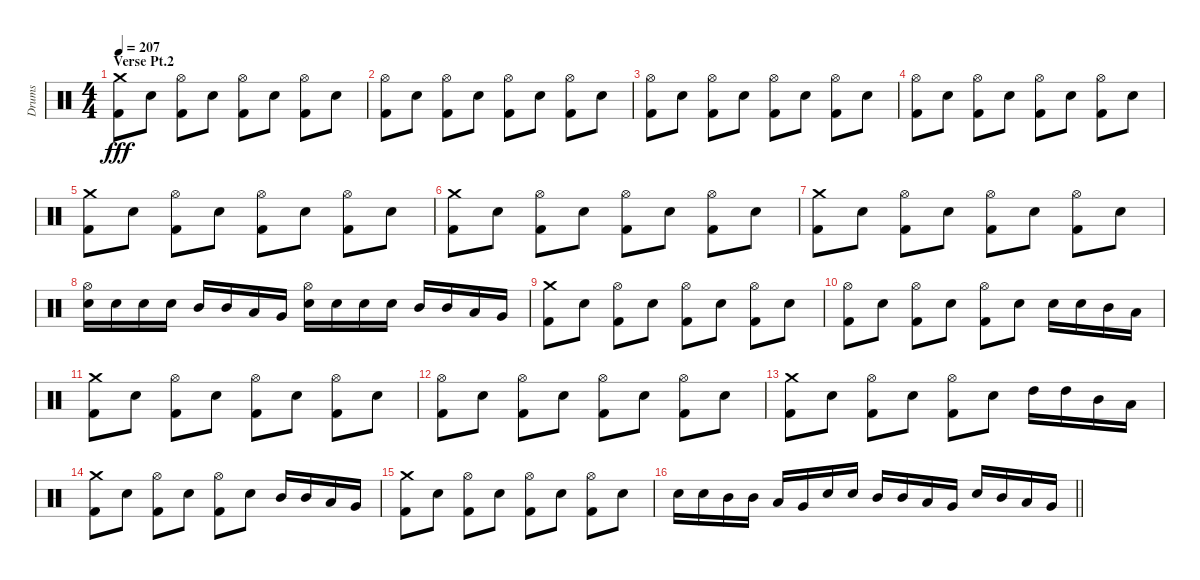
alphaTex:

\track ("Drums" "Drums") {instrument percussion}
\staff {score}
\articulation defaults
\ts (4 4)
\section ("" "Verse Pt.2")
\tempo 207
\clef neutral
\ks c
("Crash medium (hit)" "Kick (hit) 2").8{dy fff} "Electric Snare (hit)".8 ("Hi-Hat (open)" "Kick (hit) 2").8 "Electric Snare (hit)".8 ("Hi-Hat (open)" "Kick (hit) 2").8 "Electric Snare (hit)".8 ("Hi-Hat (open)" "Kick (hit) 2").8 "Electric Snare (hit)".8 |
("Hi-Hat (open)" "Kick (hit) 2").8 "Electric Snare (hit)".8 ("Hi-Hat (open)" "Kick (hit) 2").8 "Electric Snare (hit)".8 ("Hi-Hat (open)" "Kick (hit) 2").8 "Electric Snare (hit)".8 ("Hi-Hat (open)" "Kick (hit) 2").8 "Electric Snare (hit)".8 |
("Hi-Hat (open)" "Kick (hit) 2").8 "Electric Snare (hit)".8 ("Hi-Hat (open)" "Kick (hit) 2").8 "Electric Snare (hit)".8 ("Hi-Hat (open)" "Kick (hit) 2").8 "Electric Snare (hit)".8 ("Hi-Hat (open)" "Kick (hit) 2").8 "Electric Snare (hit)".8 |
("Hi-Hat (open)" "Kick (hit) 2").8 "Electric Snare (hit)".8 ("Hi-Hat (open)" "Kick (hit) 2").8 "Electric Snare (hit)".8 ("Hi-Hat (open)" "Kick (hit) 2").8 "Electric Snare (hit)".8 ("Hi-Hat (open)" "Kick (hit) 2").8 "Electric Snare (hit)".8 |
("Crash medium (hit)" "Kick (hit) 2").8 "Electric Snare (hit)".8 ("Hi-Hat (open)" "Kick (hit) 2").8 "Electric Snare (hit)".8 ("Hi-Hat (open)" "Kick (hit) 2").8 "Electric Snare (hit)".8 ("Hi-Hat (open)" "Kick (hit) 2").8 "Electric Snare (hit)".8 |
("Crash medium (hit)" "Kick (hit) 2").8 "Electric Snare (hit)".8 ("Hi-Hat (open)" "Kick (hit) 2").8 "Electric Snare (hit)".8 ("Hi-Hat (open)" "Kick (hit) 2").8 "Electric Snare (hit)".8 ("Hi-Hat (open)" "Kick (hit) 2").8 "Electric Snare (hit)".8 |
("Crash medium (hit)" "Kick (hit) 2").8 "Electric Snare (hit)".8 ("Hi-Hat (open)" "Kick (hit) 2").8 "Electric Snare (hit)".8 ("Hi-Hat (open)" "Kick (hit) 2").8 "Electric Snare (hit)".8 ("Hi-Hat (open)" "Kick (hit) 2").8 "Electric Snare (hit)".8 |
("Hi-Hat (open)" "Electric Snare (hit)").16 "Electric Snare (hit)".16 "Electric Snare (hit)".16 "Electric Snare (hit)".16 "Mid Tom (hit)".16 "Mid Tom (hit)".16 "Low Tom (hit)".16 "Very Low Tom (hit)".16 ("Hi-Hat (open)" "Electric Snare (hit)").16 "Electric Snare (hit)".16 "Electric Snare (hit)".16 "Electric Snare (hit)".16 "Mid Tom (hit)".16 "Mid Tom (hit)".16 "Low Tom (hit)".16 "Very Low Tom (hit)".16 |
("Crash medium (hit)" "Kick (hit) 2").8 "Electric Snare (hit)".8 ("Hi-Hat (open)" "Kick (hit) 2").8 "Electric Snare (hit)".8 ("Hi-Hat (open)" "Kick (hit) 2").8 "Electric Snare (hit)".8 ("Hi-Hat (open)" "Kick (hit) 2").8 "Electric Snare (hit)".8 |
("Hi-Hat (open)" "Kick (hit) 2").8 "Electric Snare (hit)".8 ("Hi-Hat (open)" "Kick (hit) 2").8 "Electric Snare (hit)".8 ("Hi-Hat (open)" "Kick (hit) 2").8 "Electric Snare (hit)".8 "Electric Snare (hit)".16 "Electric Snare (hit)".16 "Mid Tom (hit)".16 "Low Tom (hit)".16 |
("Crash medium (hit)" "Kick (hit) 2").8 "Electric Snare (hit)".8 ("Hi-Hat (open)" "Kick (hit) 2").8 "Electric Snare (hit)".8 ("Hi-Hat (open)" "Kick (hit) 2").8 "Electric Snare (hit)".8 ("Hi-Hat (open)" "Kick (hit) 2").8 "Electric Snare (hit)".8 |
("Hi-Hat (open)" "Kick (hit) 2").8 "Electric Snare (hit)".8 ("Hi-Hat (open)" "Kick (hit) 2").8 "Electric Snare (hit)".8 ("Hi-Hat (open)" "Kick (hit) 2").8 "Electric Snare (hit)".8 ("Hi-Hat (open)" "Kick (hit) 2").8 "Electric Snare (hit)".8 |
("Crash medium (hit)" "Kick (hit) 2").8 "Electric Snare (hit)".8 ("Hi-Hat (open)" "Kick (hit) 2").8 "Electric Snare (hit)".8 ("Hi-Hat (open)" "Kick (hit) 2").8 "Electric Snare (hit)".8 "High Tom (hit)".16 "High Tom (hit)".16 "Mid Tom (hit)".16 "Low Tom (hit)".16 |
("Crash medium (hit)" "Kick (hit) 2").8 "Electric Snare (hit)".8 ("Hi-Hat (open)" "Kick (hit) 2").8 "Electric Snare (hit)".8 ("Hi-Hat (open)" "Kick (hit) 2").8 "Electric Snare (hit)".8 "Mid Tom (hit)".16 "Mid Tom (hit)".16 "Low Tom (hit)".16 "Very Low Tom (hit)".16 |
("Crash medium (hit)" "Kick (hit) 2").8 "Electric Snare (hit)".8 ("Hi-Hat (open)" "Kick (hit) 2").8 "Electric Snare (hit)".8 ("Hi-Hat (open)" "Kick (hit) 2").8 "Electric Snare (hit)".8 ("Hi-Hat (open)" "Kick (hit) 2").8 "Electric Snare (hit)".8 |
\barLineRight lightlight "Electric Snare (hit)".16 "Electric Snare (hit)".16 "Mid Tom (hit)".16 "Mid Tom (hit)".16 "Low Tom (hit)".16 "Very Low Tom (hit)".16 "Electric Snare (hit)".16 "Electric Snare (hit)".16 "Mid Tom (hit)".16 "Mid Tom (hit)".16 "Low Tom (hit)".16 "Very Low Tom (hit)".16 "Electric Snare (hit)".16 "Mid Tom (hit)".16 "Low Tom (hit)".16 "Very Low Tom (hit)".16
